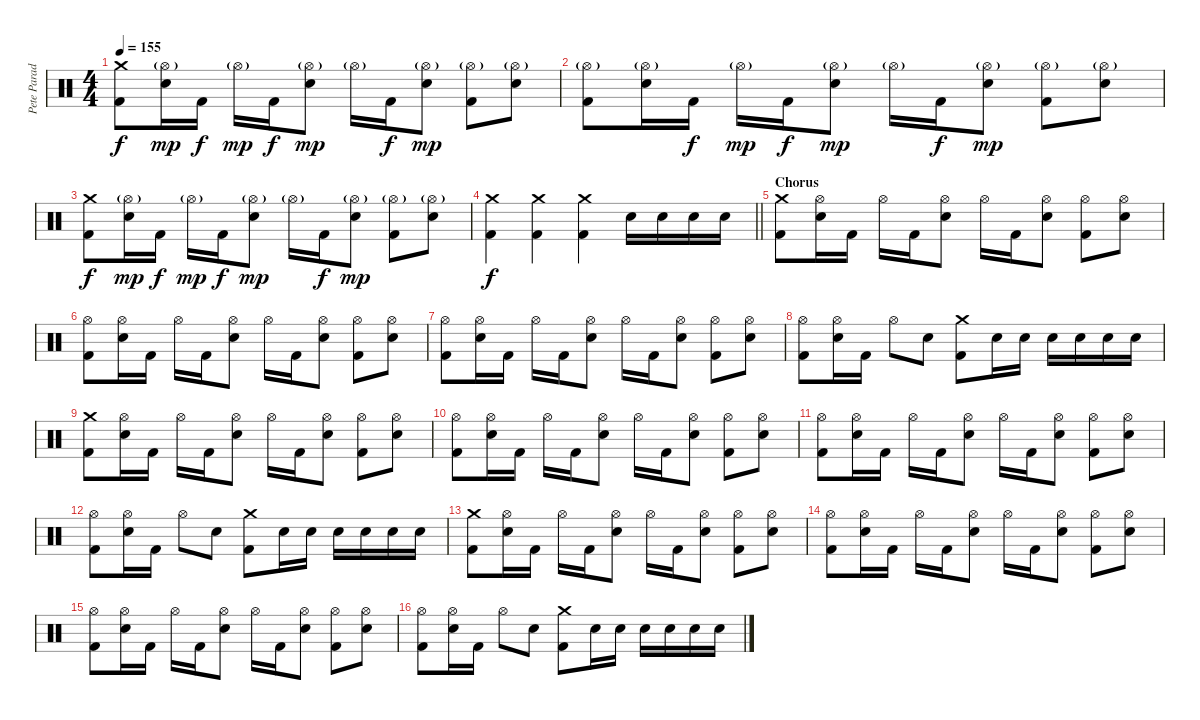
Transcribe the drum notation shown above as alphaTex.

\track ("Pete Parada - Drums" "Pete Parad") {instrument percussion}
\staff {score}
\articulation defaults
\ts (4 4)
\tempo 155
\clef neutral
\ks c
("Crash medium (hit)" "Kick (hit) 2").8{dy f} ("Hi-Hat (open)"{g} "Electric Snare (hit)").16{dy mp} "Kick (hit) 2".16{dy f} "Hi-Hat (open)"{g}.16{dy mp} "Kick (hit) 2".16{dy f} ("Hi-Hat (open)"{g} "Electric Snare (hit)").8{dy mp} "Hi-Hat (open)"{g}.16 "Kick (hit) 2".16{dy f} ("Hi-Hat (open)"{g} "Electric Snare (hit)").8{dy mp} ("Hi-Hat (open)"{g} "Kick (hit) 2").8 ("Hi-Hat (open)"{g} "Electric Snare (hit)").8 |
("Hi-Hat (open)"{g} "Kick (hit) 2").8 ("Hi-Hat (open)"{g} "Electric Snare (hit)").16 "Kick (hit) 2".16{dy f} "Hi-Hat (open)"{g}.16{dy mp} "Kick (hit) 2".16{dy f} ("Hi-Hat (open)"{g} "Electric Snare (hit)").8{dy mp} "Hi-Hat (open)"{g}.16 "Kick (hit) 2".16{dy f} ("Hi-Hat (open)"{g} "Electric Snare (hit)").8{dy mp} ("Hi-Hat (open)"{g} "Kick (hit) 2").8 ("Hi-Hat (open)"{g} "Electric Snare (hit)").8 |
("Crash medium (hit)" "Kick (hit) 2").8{dy f} ("Hi-Hat (open)"{g} "Electric Snare (hit)").16{dy mp} "Kick (hit) 2".16{dy f} "Hi-Hat (open)"{g}.16{dy mp} "Kick (hit) 2".16{dy f} ("Hi-Hat (open)"{g} "Electric Snare (hit)").8{dy mp} "Hi-Hat (open)"{g}.16 "Kick (hit) 2".16{dy f} ("Hi-Hat (open)"{g} "Electric Snare (hit)").8{dy mp} ("Hi-Hat (open)"{g} "Kick (hit) 2").8 ("Hi-Hat (open)"{g} "Electric Snare (hit)").8 |
\barLineRight lightlight
("Crash medium (hit)" "Kick (hit) 2").4{dy f} ("Crash medium (hit)" "Kick (hit) 2").4 ("Crash medium (hit)" "Kick (hit) 2").4 "Electric Snare (hit)".16 "Electric Snare (hit)".16 "Electric Snare (hit)".16 "Electric Snare (hit)".16 |
\section ("" "Chorus")
("Crash medium (hit)" "Kick (hit) 2").8 ("Hi-Hat (open)" "Electric Snare (hit)").16 "Kick (hit) 2".16 "Hi-Hat (open)".16 "Kick (hit) 2".16 ("Hi-Hat (open)" "Electric Snare (hit)").8 "Hi-Hat (open)".16 "Kick (hit) 2".16 ("Hi-Hat (open)" "Electric Snare (hit)").8 ("Hi-Hat (open)" "Kick (hit) 2").8 ("Hi-Hat (open)" "Electric Snare (hit)").8 |
("Hi-Hat (open)" "Kick (hit) 2").8 ("Hi-Hat (open)" "Electric Snare (hit)").16 "Kick (hit) 2".16 "Hi-Hat (open)".16 "Kick (hit) 2".16 ("Hi-Hat (open)" "Electric Snare (hit)").8 "Hi-Hat (open)".16 "Kick (hit) 2".16 ("Hi-Hat (open)" "Electric Snare (hit)").8 ("Hi-Hat (open)" "Kick (hit) 2").8 ("Hi-Hat (open)" "Electric Snare (hit)").8 |
("Hi-Hat (open)" "Kick (hit) 2").8 ("Hi-Hat (open)" "Electric Snare (hit)").16 "Kick (hit) 2".16 "Hi-Hat (open)".16 "Kick (hit) 2".16 ("Hi-Hat (open)" "Electric Snare (hit)").8 "Hi-Hat (open)".16 "Kick (hit) 2".16 ("Hi-Hat (open)" "Electric Snare (hit)").8 ("Hi-Hat (open)" "Kick (hit) 2").8 ("Hi-Hat (open)" "Electric Snare (hit)").8 |
("Hi-Hat (open)" "Kick (hit) 2").8 ("Hi-Hat (open)" "Electric Snare (hit)").16 "Kick (hit) 2".16 "Hi-Hat (open)".8 "Electric Snare (hit)".8 ("Crash medium (hit)" "Kick (hit) 2").8 "Electric Snare (hit)".16 "Electric Snare (hit)".16 "Electric Snare (hit)".16 "Electric Snare (hit)".16 "Electric Snare (hit)".16 "Electric Snare (hit)".16 |
("Crash medium (hit)" "Kick (hit) 2").8 ("Hi-Hat (open)" "Electric Snare (hit)").16 "Kick (hit) 2".16 "Hi-Hat (open)".16 "Kick (hit) 2".16 ("Hi-Hat (open)" "Electric Snare (hit)").8 "Hi-Hat (open)".16 "Kick (hit) 2".16 ("Hi-Hat (open)" "Electric Snare (hit)").8 ("Hi-Hat (open)" "Kick (hit) 2").8 ("Hi-Hat (open)" "Electric Snare (hit)").8 |
("Hi-Hat (open)" "Kick (hit) 2").8 ("Hi-Hat (open)" "Electric Snare (hit)").16 "Kick (hit) 2".16 "Hi-Hat (open)".16 "Kick (hit) 2".16 ("Hi-Hat (open)" "Electric Snare (hit)").8 "Hi-Hat (open)".16 "Kick (hit) 2".16 ("Hi-Hat (open)" "Electric Snare (hit)").8 ("Hi-Hat (open)" "Kick (hit) 2").8 ("Hi-Hat (open)" "Electric Snare (hit)").8 |
("Hi-Hat (open)" "Kick (hit) 2").8 ("Hi-Hat (open)" "Electric Snare (hit)").16 "Kick (hit) 2".16 "Hi-Hat (open)".16 "Kick (hit) 2".16 ("Hi-Hat (open)" "Electric Snare (hit)").8 "Hi-Hat (open)".16 "Kick (hit) 2".16 ("Hi-Hat (open)" "Electric Snare (hit)").8 ("Hi-Hat (open)" "Kick (hit) 2").8 ("Hi-Hat (open)" "Electric Snare (hit)").8 |
("Hi-Hat (open)" "Kick (hit) 2").8 ("Hi-Hat (open)" "Electric Snare (hit)").16 "Kick (hit) 2".16 "Hi-Hat (open)".8 "Electric Snare (hit)".8 ("Crash medium (hit)" "Kick (hit) 2").8 "Electric Snare (hit)".16 "Electric Snare (hit)".16 "Electric Snare (hit)".16 "Electric Snare (hit)".16 "Electric Snare (hit)".16 "Electric Snare (hit)".16 |
("Crash medium (hit)" "Kick (hit) 2").8 ("Hi-Hat (open)" "Electric Snare (hit)").16 "Kick (hit) 2".16 "Hi-Hat (open)".16 "Kick (hit) 2".16 ("Hi-Hat (open)" "Electric Snare (hit)").8 "Hi-Hat (open)".16 "Kick (hit) 2".16 ("Hi-Hat (open)" "Electric Snare (hit)").8 ("Hi-Hat (open)" "Kick (hit) 2").8 ("Hi-Hat (open)" "Electric Snare (hit)").8 |
("Hi-Hat (open)" "Kick (hit) 2").8 ("Hi-Hat (open)" "Electric Snare (hit)").16 "Kick (hit) 2".16 "Hi-Hat (open)".16 "Kick (hit) 2".16 ("Hi-Hat (open)" "Electric Snare (hit)").8 "Hi-Hat (open)".16 "Kick (hit) 2".16 ("Hi-Hat (open)" "Electric Snare (hit)").8 ("Hi-Hat (open)" "Kick (hit) 2").8 ("Hi-Hat (open)" "Electric Snare (hit)").8 |
("Hi-Hat (open)" "Kick (hit) 2").8 ("Hi-Hat (open)" "Electric Snare (hit)").16 "Kick (hit) 2".16 "Hi-Hat (open)".16 "Kick (hit) 2".16 ("Hi-Hat (open)" "Electric Snare (hit)").8 "Hi-Hat (open)".16 "Kick (hit) 2".16 ("Hi-Hat (open)" "Electric Snare (hit)").8 ("Hi-Hat (open)" "Kick (hit) 2").8 ("Hi-Hat (open)" "Electric Snare (hit)").8 |
("Hi-Hat (open)" "Kick (hit) 2").8 ("Hi-Hat (open)" "Electric Snare (hit)").16 "Kick (hit) 2".16 "Hi-Hat (open)".8 "Electric Snare (hit)".8 ("Crash medium (hit)" "Kick (hit) 2").8 "Electric Snare (hit)".16 "Electric Snare (hit)".16 "Electric Snare (hit)".16 "Electric Snare (hit)".16 "Electric Snare (hit)".16 "Electric Snare (hit)".16
